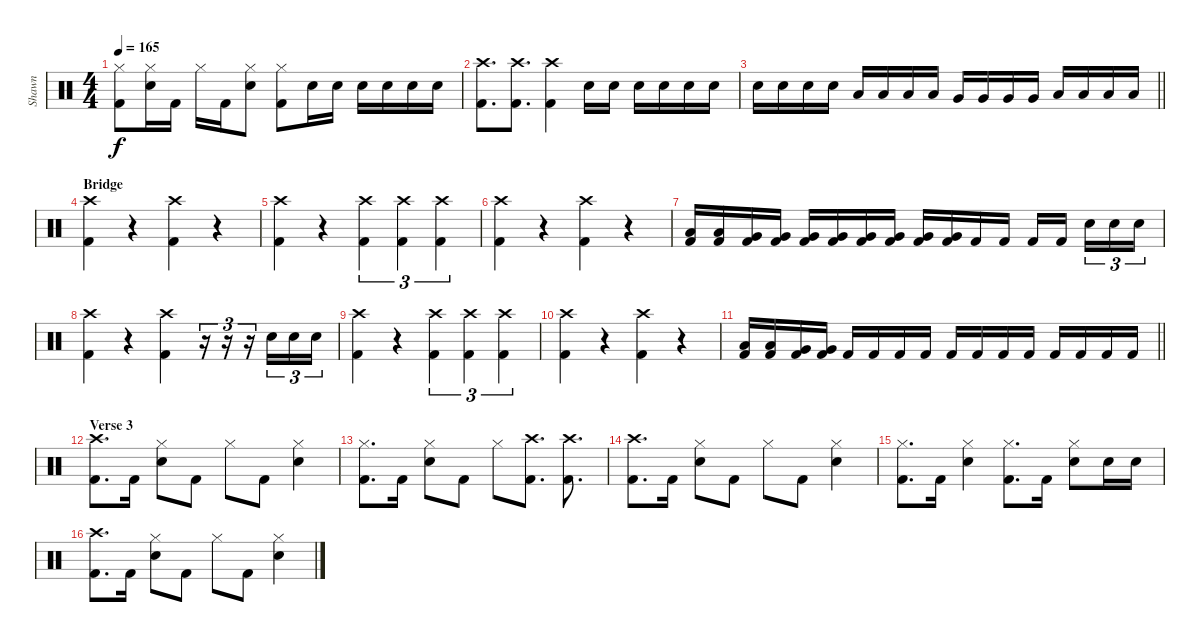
\track ("Shawn" "Shawn") {instrument percussion}
\staff {score}
\articulation defaults
\ts (4 4)
\tempo 165
\clef neutral
\ks c
("Hi-Hat (closed)" "Kick (hit) 2").8{dy f} ("Hi-Hat (closed)" "Snare (hit) 2").16 "Kick (hit) 2".16 "Hi-Hat (closed)".16 "Kick (hit) 2".16 ("Hi-Hat (closed)" "Snare (hit) 2").8 ("Hi-Hat (closed)" "Kick (hit) 2").8 "Snare (hit) 2".16 "Snare (hit) 2".16 "Snare (hit) 2".16 "Snare (hit) 2".16 "Snare (hit) 2".16 "Snare (hit) 2".16 |
("Crash high (hit)" "Kick (hit) 2").8{d} ("Crash high (hit)" "Kick (hit) 2").8{d} ("Crash high (hit)" "Kick (hit) 2").4 "Snare (hit) 2".16 "Snare (hit) 2".16 "Snare (hit) 2".16 "Snare (hit) 2".16 "Snare (hit) 2".16 "Snare (hit) 2".16 |
\barLineRight lightlight "Snare (hit) 2".16 "Snare (hit) 2".16 "Snare (hit) 2".16 "Snare (hit) 2".16 "Low Tom (hit)".16 "Low Tom (hit)".16 "Low Tom (hit)".16 "Low Tom (hit)".16 "Very Low Tom (hit)".16 "Very Low Tom (hit)".16 "Very Low Tom (hit)".16 "Very Low Tom (hit)".16 "Low Floor Tom (hit)".16 "Low Floor Tom (hit)".16 "Low Floor Tom (hit)".16 "Low Floor Tom (hit)".16
|
\section ("" "Bridge")
("Crash high (hit)" "Kick (hit) 2").4 r.4 ("Crash high (hit)" "Kick (hit) 2").4 r.4 |
("Crash high (hit)" "Kick (hit) 2").4 r.4 ("Crash high (hit)" "Kick (hit) 2").4{tu (3 2)} ("Crash high (hit)" "Kick (hit) 2").4{tu (3 2)} ("Crash high (hit)" "Kick (hit) 2").4{tu (3 2)} |
("Crash high (hit)" "Kick (hit) 2").4 r.4 ("Crash high (hit)" "Kick (hit) 2").4 r.4 |
("Low Tom (hit)" "Kick (hit) 2").16 ("Low Tom (hit)" "Kick (hit) 2").16 ("Very Low Tom (hit)" "Kick (hit) 2").16 ("Very Low Tom (hit)" "Kick (hit) 2").16 ("Very Low Tom (hit)" "Kick (hit) 2").16 ("Very Low Tom (hit)" "Kick (hit) 2").16 ("Very Low Tom (hit)" "Kick (hit) 2").16 ("Very Low Tom (hit)" "Kick (hit) 2").16 ("Very Low Tom (hit)" "Kick (hit) 2").16 ("Very Low Tom (hit)" "Kick (hit) 2").16 "Kick (hit) 2".16 "Kick (hit) 2".16 "Kick (hit) 2".16 "Kick (hit) 2".16{beam splitsecondary} "Snare (hit) 2".16{tu (3 2)} "Snare (hit) 2".16{tu (3 2)} "Snare (hit) 2".16{tu (3 2)} |
("Crash high (hit)" "Kick (hit) 2").4 r.4 ("Crash high (hit)" "Kick (hit) 2").4 r.16{tu (3 2)} r.16{tu (3 2)} r.16{tu (3 2)} "Snare (hit) 2".16{tu (3 2)} "Snare (hit) 2".16{tu (3 2)} "Snare (hit) 2".16{tu (3 2)} |
("Crash high (hit)" "Kick (hit) 2").4 r.4 ("Crash high (hit)" "Kick (hit) 2").4{tu (3 2)} ("Crash high (hit)" "Kick (hit) 2").4{tu (3 2)} ("Crash high (hit)" "Kick (hit) 2").4{tu (3 2)} |
("Crash high (hit)" "Kick (hit) 2").4 r.4 ("Crash high (hit)" "Kick (hit) 2").4 r.4 |
\barLineRight lightlight
("Low Tom (hit)" "Kick (hit) 2").16 ("Low Tom (hit)" "Kick (hit) 2").16 ("Very Low Tom (hit)" "Kick (hit) 2").16 ("Very Low Tom (hit)" "Kick (hit) 2").16 "Kick (hit) 2".16 "Kick (hit) 2".16 "Kick (hit) 2".16 "Kick (hit) 2".16 "Kick (hit) 2".16 "Kick (hit) 2".16 "Kick (hit) 2".16 "Kick (hit) 2".16 "Kick (hit) 2".16 "Kick (hit) 2".16 "Kick (hit) 2".16 "Kick (hit) 2".16 |
\section ("" "Verse 3")
("Crash high (hit)" "Kick (hit) 2").8{d} "Kick (hit) 2".16 ("Hi-Hat (closed)" "Snare (hit) 2").8 "Kick (hit) 2".8 "Hi-Hat (closed)".8 "Kick (hit) 2".8 ("Hi-Hat (closed)" "Snare (hit) 2").4 |
("Hi-Hat (closed)" "Kick (hit) 2").8{d} "Kick (hit) 2".16 ("Hi-Hat (closed)" "Snare (hit) 2").8 "Kick (hit) 2".8 "Hi-Hat (closed)".8 ("Crash high (hit)" "Kick (hit) 2").8{d} ("Crash high (hit)" "Kick (hit) 2").8{d} |
("Crash high (hit)" "Kick (hit) 2").8{d} "Kick (hit) 2".16 ("Hi-Hat (closed)" "Snare (hit) 2").8 "Kick (hit) 2".8 "Hi-Hat (closed)".8 "Kick (hit) 2".8 ("Hi-Hat (closed)" "Snare (hit) 2").4 |
("Hi-Hat (closed)" "Kick (hit) 2").8{d} "Kick (hit) 2".16 ("Hi-Hat (closed)" "Snare (hit) 2").4 ("Hi-Hat (closed)" "Kick (hit) 2").8{d} "Kick (hit) 2".16 ("Hi-Hat (closed)" "Snare (hit) 2").8 "Snare (hit) 2".16 "Snare (hit) 2".16 |
("Crash high (hit)" "Kick (hit) 2").8{d} "Kick (hit) 2".16 ("Hi-Hat (closed)" "Snare (hit) 2").8 "Kick (hit) 2".8 "Hi-Hat (closed)".8 "Kick (hit) 2".8 ("Hi-Hat (closed)" "Snare (hit) 2").4
